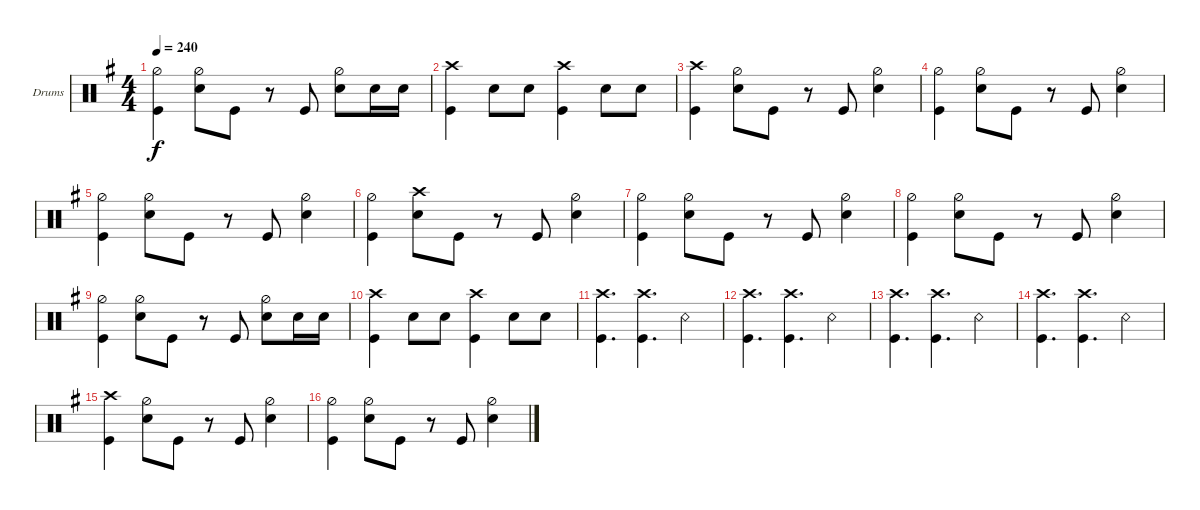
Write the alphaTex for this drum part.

\defaultSystemsLayout 4
\bracketExtendMode groupsimilarinstruments
\firstSystemTrackNameOrientation horizontal
\otherSystemsTrackNameOrientation horizontal
\track ("Drums" "Drums") {instrument percussion}
\staff {score}
\articulation defaults
\ts (4 4)
\tempo 240
\clef neutral
\ks g
("Kick (hit)" "Hi-Hat (half)").4{dy f} ("Snare (hit) 2" "Hi-Hat (half)").8 "Kick (hit)".8 r.8 "Kick (hit)".8 ("Snare (hit) 2" "Hi-Hat (half)").8 "Snare (hit) 2".16 "Snare (hit) 2".16 |
("Kick (hit)" "Crash high (hit)").4 "Snare (hit) 2".8 "Snare (hit) 2".8 ("Kick (hit)" "Crash high (hit)").4 "Snare (hit) 2".8 "Snare (hit) 2".8 |
("Kick (hit)" "Crash high (hit)").4 ("Snare (hit) 2" "Hi-Hat (half)").8 "Kick (hit)".8 r.8 "Kick (hit)".8 ("Snare (hit) 2" "Hi-Hat (half)").4 |
("Kick (hit)" "Hi-Hat (half)").4 ("Snare (hit) 2" "Hi-Hat (half)").8 "Kick (hit)".8 r.8 "Kick (hit)".8 ("Snare (hit) 2" "Hi-Hat (half)").4 |
("Kick (hit)" "Hi-Hat (half)").4 ("Snare (hit) 2" "Hi-Hat (half)").8 "Kick (hit)".8 r.8 "Kick (hit)".8 ("Snare (hit) 2" "Hi-Hat (half)").4 |
("Kick (hit)" "Hi-Hat (half)").4 ("Snare (hit) 2" "Crash high (hit)").8 "Kick (hit)".8 r.8 "Kick (hit)".8 ("Snare (hit) 2" "Hi-Hat (half)").4 |
("Kick (hit)" "Hi-Hat (half)").4 ("Snare (hit) 2" "Hi-Hat (half)").8 "Kick (hit)".8 r.8 "Kick (hit)".8 ("Snare (hit) 2" "Hi-Hat (half)").4 |
("Kick (hit)" "Hi-Hat (half)").4 ("Snare (hit) 2" "Hi-Hat (half)").8 "Kick (hit)".8 r.8 "Kick (hit)".8 ("Snare (hit) 2" "Hi-Hat (half)").4 |
("Kick (hit)" "Hi-Hat (half)").4 ("Snare (hit) 2" "Hi-Hat (half)").8 "Kick (hit)".8 r.8 "Kick (hit)".8 ("Snare (hit) 2" "Hi-Hat (half)").8 "Snare (hit) 2".16 "Snare (hit) 2".16 |
("Kick (hit)" "Crash high (hit)").4 "Snare (hit) 2".8 "Snare (hit) 2".8 ("Kick (hit)" "Crash high (hit)").4 "Snare (hit) 2".8 "Snare (hit) 2".8 |
("Kick (hit)" "Crash high (hit)").4{d} ("Kick (hit)" "Crash high (hit)").4{d} "Snare (rim shot)".4 |
("Kick (hit)" "Crash high (hit)").4{d} ("Kick (hit)" "Crash high (hit)").4{d} "Snare (rim shot)".4 |
("Kick (hit)" "Crash high (hit)").4{d} ("Kick (hit)" "Crash high (hit)").4{d} "Snare (rim shot)".4 |
("Kick (hit)" "Crash high (hit)").4{d} ("Kick (hit)" "Crash high (hit)").4{d} "Snare (rim shot)".4 |
("Kick (hit)" "Crash high (hit)").4 ("Snare (hit) 2" "Hi-Hat (half)").8 "Kick (hit)".8 r.8 "Kick (hit)".8 ("Snare (hit) 2" "Hi-Hat (half)").4 |
("Kick (hit)" "Hi-Hat (half)").4 ("Snare (hit) 2" "Hi-Hat (half)").8 "Kick (hit)".8 r.8 "Kick (hit)".8 ("Snare (hit) 2" "Hi-Hat (half)").4
